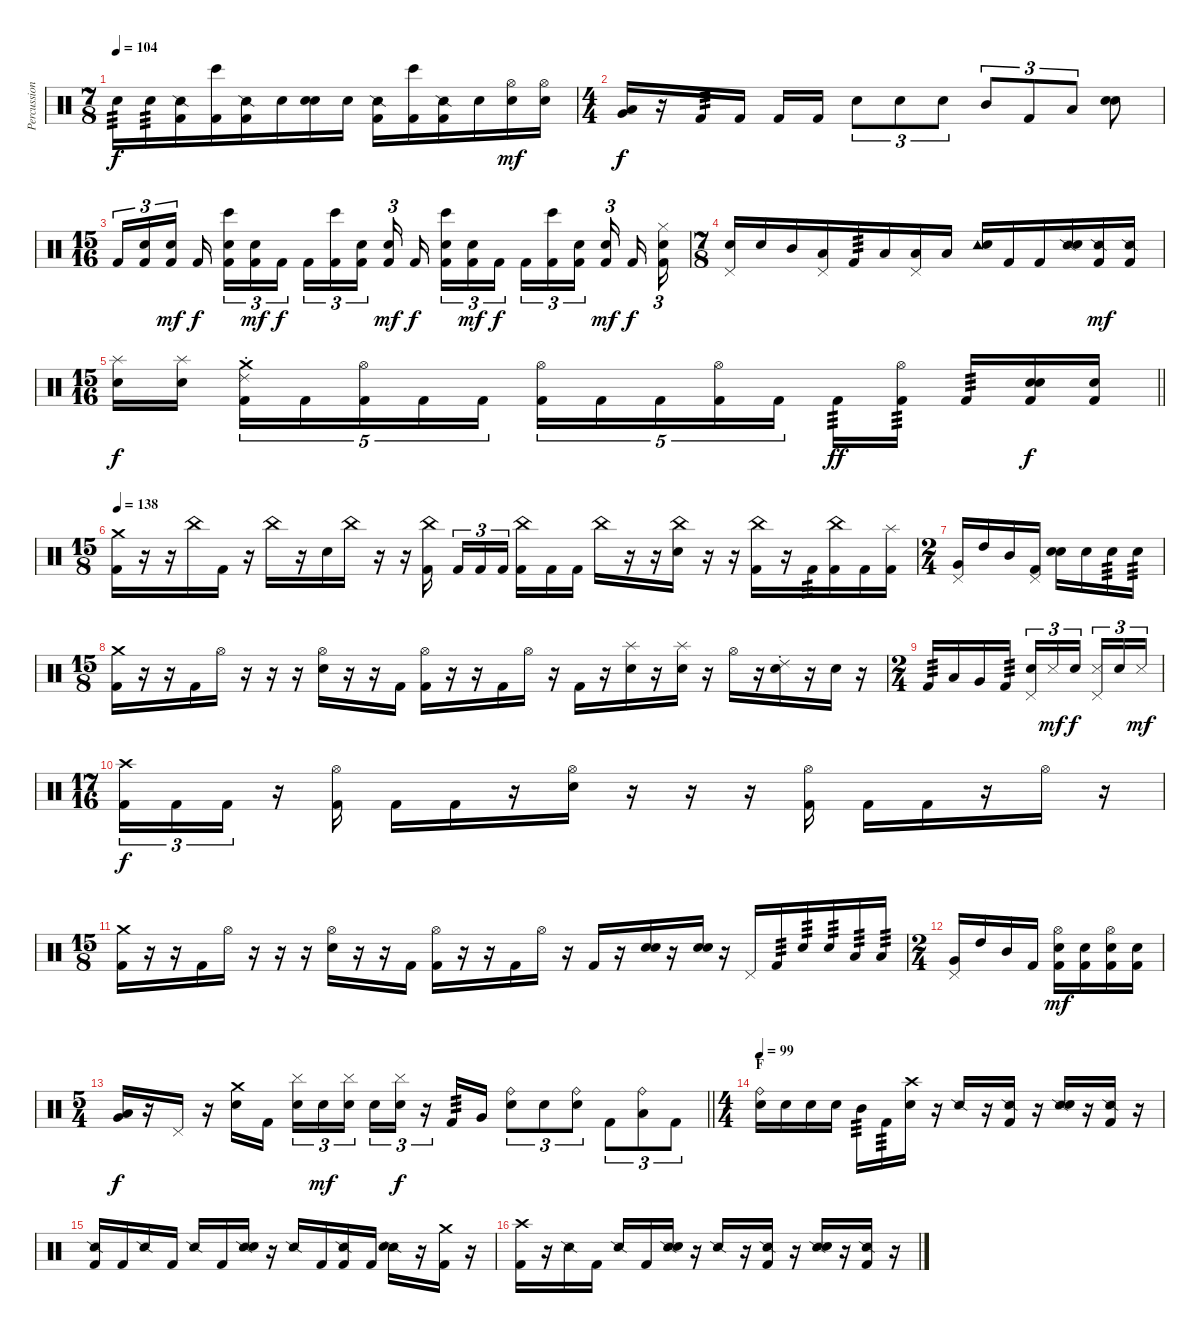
\track ("Percussion" "Percussion") {instrument percussion}
\staff {score}
\articulation defaults
\ts (7 8)
\tempo 104
\clef neutral
\ks c "Snare (hit) 2".16{tp 3 dy f} "Snare (hit) 2".16{tp 3}
("Snare (side stick) 2" "Kick (hit) 2").16 ("Bongo High (hit)" "Kick (hit) 2").16 ("Snare (side stick) 2" "Kick (hit) 2").16 "Snare (hit) 2".16 ("Snare (hit)" "Snare (hit) 2").16 "Snare (hit) 2".16 ("Snare (side stick) 2" "Kick (hit) 2").16 ("Bongo High (hit)" "Kick (hit) 2").16 ("Snare (side stick) 2" "Kick (hit) 2").16 "Snare (hit) 2".16 ("Hi-Hat (open)" "Snare (hit) 2").16{dy mf} ("Hi-Hat (open)" "Snare (hit) 2").16 |
\ts (4 4)
("Low Tom (hit)" "Very Low Tom (hit)").16{bu 60 dy f} r.16 "Kick (hit) 2".16{tp 3} "Kick (hit) 2".16 "Kick (hit) 2".16 "Kick (hit) 2".16 "Snare (hit) 2".8{tu (3 2)} "Snare (hit) 2".8{tu (3 2)} "Snare (hit) 2".8{tu (3 2)} "Mid Tom (hit)".8{tu (3 2)} "Kick (hit) 2".8{tu (3 2)} "Low Tom (hit)".8{tu (3 2)} ("Snare (hit)" "Snare (hit) 2").8 |
\ts (15 16)
"Kick (hit) 2".16{tu (3 2)} ("Snare (hit) 2" "Kick (hit) 2").16{tu (3 2)} ("Snare (hit) 2" "Kick (hit) 2").16{tu (3 2) dy mf beam splitsecondary} "Kick (hit) 2".16{dy f} ("Bongo High (hit)" "Snare (hit) 2" "Kick (hit) 2").16{tu (3 2)} ("Snare (hit) 2" "Kick (hit) 2").16{tu (3 2) dy mf} "Kick (hit) 2".16{tu (3 2) dy f beam splitsecondary} "Kick (hit) 2".16{tu (3 2)} ("Bongo High (hit)" "Kick (hit) 2").16{tu (3 2)} ("Snare (hit) 2" "Kick (hit) 2").16{tu (3 2) beam splitsecondary} ("Snare (hit) 2" "Kick (hit) 2").16{tu (3 2) dy mf beam splitsecondary} "Kick (hit) 2".16{dy f} ("Bongo High (hit)" "Snare (hit) 2" "Kick (hit) 2").16{tu (3 2)} ("Snare (hit) 2" "Kick (hit) 2").16{tu (3 2) dy mf} "Kick (hit) 2".16{tu (3 2) dy f beam splitsecondary} "Kick (hit) 2".16{tu (3 2)} ("Bongo High (hit)" "Kick (hit) 2").16{tu (3 2)} ("Snare (hit) 2" "Kick (hit) 2").16{tu (3 2) beam splitsecondary} ("Snare (hit) 2" "Kick (hit) 2").16{tu (3 2) dy mf beam splitsecondary} "Kick (hit) 2".16{dy f} ("Hi-Hat (closed)" "Snare (hit) 2" "Kick (hit) 2").16{tu (3 2)} |
\ts (7 8)
("Pedal Hi-Hat (hit)" "Snare (hit) 2").16 "Snare (hit) 2".16 "Mid Tom (hit)".16 ("Pedal Hi-Hat (hit)" "Low Tom (hit)").16 "Kick (hit) 2".16{tp 3} "Low Tom (hit)".16 ("Pedal Hi-Hat (hit)" "Low Tom (hit)").16 "Low Tom (hit)".16 ("Tambourine (hit)" "Snare (hit) 2").16 "Kick (hit) 2".16 "Kick (hit) 2".16 ("Snare (side stick) 2" "Snare (hit) 2").16 ("Snare (side stick) 2" "Kick (hit) 2").16{dy mf} ("Snare (side stick) 2" "Kick (hit) 2").16 |
\ts (15 16)
\barLineRight lightlight
("Splash (hit)" "Snare (hit) 2").16{dy f} ("Splash (hit)" "Snare (hit) 2").16{beam splitsecondary} ("Crash medium (hit)" "Ride (choke) 2" "Kick (hit) 2").16{tu (5 4)} "Kick (hit) 2".16{tu (5 4)} ("Hi-Hat (open)" "Kick (hit) 2").16{tu (5 4)} "Kick (hit) 2".16{tu (5 4)} "Kick (hit) 2".16{tu (5 4)} ("Hi-Hat (open)" "Kick (hit) 2").16{tu (5 4)} "Kick (hit) 2".16{tu (5 4)} "Kick (hit) 2".16{tu (5 4)} ("Hi-Hat (open)" "Kick (hit) 2").16{tu (5 4)} "Kick (hit) 2".16{tu (5 4) beam splitsecondary} "Kick (hit) 2".16{tp 3 dy ff} ("Hi-Hat (open)" "Kick (hit) 2").16{tp 3} "Kick (hit) 2".16{tp 3} ("Snare (hit)" "Snare (hit) 2" "Kick (hit) 2").16{dy f} ("Snare (hit) 2" "Kick (hit) 2").16 |
\ts (15 8)
\tempo 138
("Crash medium (hit)" "Kick (hit) 2").16 r.16 r.16 "China (hit)".16 "Kick (hit) 2".16 r.16 "China (hit)".16 r.16 "Snare (hit) 2".16 "China (hit)".16 r.16 r.16 ("China (hit)" "Kick (hit) 2").16{beam splitsecondary} "Kick (hit) 2".16{tu (3 2)} "Kick (hit) 2".16{tu (3 2)} "Kick (hit) 2".16{tu (3 2) beam splitsecondary} ("China (hit)" "Kick (hit) 2").16 "Kick (hit) 2".16 "Kick (hit) 2".16 "China (hit)".16 r.16 r.16 ("China (hit)" "Snare (hit) 2").16 r.16 r.16 ("China (hit)" "Kick (hit) 2").16 r.16 "Kick (hit) 2".16{tp 3} ("China (hit)" "Kick (hit) 2").16 "Kick (hit) 2".16 ("Splash (hit)" "Kick (hit) 2").16 |
\ts (2 4)
("Pedal Hi-Hat (hit)" "Very Low Tom (hit)").16 "High Tom (hit)".16 "Mid Tom (hit)".16 ("Pedal Hi-Hat (hit)" "Kick (hit) 2").16 ("Snare (hit)" "Snare (hit) 2").16 "Snare (hit) 2".16 "Snare (hit) 2".16{tp 3} "Snare (hit) 2".16{tp 3} |
\ts (15 8)
("Crash medium (hit)" "Kick (hit) 2").16 r.16 r.16 "Kick (hit) 2".16 "Hi-Hat (open)".16 r.16 r.16 r.16 ("Hi-Hat (open)" "Snare (hit) 2").16 r.16 r.16 "Kick (hit) 2".16 ("Hi-Hat (open)" "Kick (hit) 2").16 r.16 r.16 "Kick (hit) 2".16 "Hi-Hat (open)".16 r.16 "Kick (hit) 2".16 r.16 ("Splash (hit)" "Snare (hit) 2").16 r.16 ("Splash (hit)" "Snare (hit) 2").16 r.16 "Hi-Hat (open)".16 r.16 ("Ride (choke) 2" "Snare (hit) 2").16 r.16 "Snare (hit)".16 r.16 |
\ts (2 4)
"Kick (hit) 2".16{tp 3} "Low Tom (hit)".16 "Very Low Tom (hit)".16 "Kick (hit) 2".16{tp 3} ("Pedal Hi-Hat (hit)" "Snare (hit) 2").16{tu (3 2)} "Metronome (hit)".16{tu (3 2) dy mf} "Snare (hit) 2".16{tu (3 2) dy f beam splitsecondary} ("Pedal Hi-Hat (hit)" "Metronome (hit)").16{tu (3 2)} "Snare (hit) 2".16{tu (3 2)} "Metronome (hit)".16{tu (3 2) dy mf} |
\ts (17 16)
("Crash high (hit)" "Kick (hit) 2").16{tu (3 2) dy f} "Kick (hit) 2".16{tu (3 2)} "Kick (hit) 2".16{tu (3 2)} r.16 ("Hi-Hat (open)" "Kick (hit) 2").16 "Kick (hit) 2".16 "Kick (hit) 2".16 r.16 ("Hi-Hat (open)" "Snare (hit) 2").16 r.16 r.16 r.16 ("Hi-Hat (open)" "Kick (hit) 2").16 "Kick (hit) 2".16 "Kick (hit) 2".16 r.16 "Hi-Hat (open)".16 r.16 |
\ts (15 8)
("Crash medium (hit)" "Kick (hit) 2").16 r.16 r.16 "Kick (hit) 2".16 "Hi-Hat (open)".16 r.16 r.16 r.16 ("Hi-Hat (open)" "Snare (hit) 2").16 r.16 r.16 "Kick (hit) 2".16 ("Hi-Hat (open)" "Kick (hit) 2").16 r.16 r.16 "Kick (hit) 2".16 "Hi-Hat (open)".16 r.16 "Kick (hit) 2".16 r.16 ("Snare (hit)" "Snare (hit) 2").16 r.16 ("Snare (hit)" "Snare (hit) 2").16 r.16 "Pedal Hi-Hat (hit)".16 "Kick (hit) 2".16{tp 3} "Snare (hit) 2".16{tp 3} "Snare (hit) 2".16{tp 3} "Low Tom (hit)".16{tp 3} "Low Tom (hit)".16{tp 3} |
\ts (2 4)
("Pedal Hi-Hat (hit)" "Very Low Tom (hit)").16 "High Tom (hit)".16 "Mid Tom (hit)".16 "Kick (hit) 2".16 ("Hi-Hat (open)" "Snare (hit) 2" "Kick (hit) 2").16{dy mf} ("Snare (hit) 2" "Kick (hit) 2").16 ("Hi-Hat (open)" "Snare (hit) 2" "Kick (hit) 2").16 ("Snare (hit) 2" "Kick (hit) 2").16 |
\ts (5 4)
\barLineRight lightlight
("Low Tom (hit)" "Very Low Tom (hit)").16{bu 60 dy f} r.16 "Pedal Hi-Hat (hit)".16 r.16 ("Crash medium (hit)" "Snare (hit) 2").16 "Kick (hit) 2".16{beam splitsecondary} ("Cymbal (hit)" "Snare (hit) 2").16{tu (3 2)} "Snare (hit) 2".16{tu (3 2) dy mf} ("Cymbal (hit)" "Snare (hit) 2").16{tu (3 2)} "Snare (hit) 2".16{tu (3 2)} ("Cymbal (hit)" "Snare (hit) 2").16{tu (3 2) dy f} r.16{tu (3 2)} "Kick (hit) 2".16{tp 3} "Very Low Tom (hit)".16 ("Ride (bell)" "Snare (hit) 2").8{tu (3 2)} "Snare (hit) 2".8{tu (3 2)} ("Ride (bell)" "Snare (hit) 2").8{tu (3 2)} "Kick (hit) 2".8{tu (3 2)} ("Ride (bell)" "Low Tom (hit)").8{tu (3 2)} "Kick (hit) 2".8{tu (3 2)} |
\ts (4 4)
\section ("" "F")
\tempo 99
("Ride (bell)" "Snare (hit) 2").16 "Snare (hit) 2".16 "Snare (hit) 2".16 "Snare (hit) 2".16 "Mid Tom (hit)".16{tp 3} "Kick (hit) 2".16{tp 3} ("Crash high (hit)" "Snare (hit) 2").16 r.16 "Snare (side stick) 2".16 r.16 ("Snare (side stick) 2" "Kick (hit) 2").16 r.16 ("Snare (side stick) 2" "Snare (hit) 2").16 r.16 ("Snare (side stick) 2" "Kick (hit) 2").16 r.16 |
("Snare (side stick) 2" "Kick (hit) 2").16 "Kick (hit) 2".16 "Snare (side stick) 2".16 "Kick (hit) 2".16 "Snare (side stick) 2".16 "Kick (hit) 2".16 ("Snare (side stick) 2" "Snare (hit) 2").16 r.16 "Snare (side stick) 2".16 "Kick (hit) 2".16 ("Snare (side stick) 2" "Kick (hit) 2").16 "Kick (hit) 2".16 ("Snare (side stick) 2" "Snare (hit) 2").16 r.16 ("Crash medium (hit)" "Kick (hit) 2").16 r.16 |
("Crash high (hit)" "Kick (hit) 2").16 r.16 "Snare (side stick) 2".16 "Kick (hit) 2".16 "Snare (side stick) 2".16 "Kick (hit) 2".16 ("Snare (side stick) 2" "Snare (hit) 2").16 r.16 "Snare (side stick) 2".16 r.16 ("Snare (side stick) 2" "Kick (hit) 2").16 r.16 ("Snare (side stick) 2" "Snare (hit) 2").16 r.16 ("Snare (side stick) 2" "Kick (hit) 2").16 r.16
